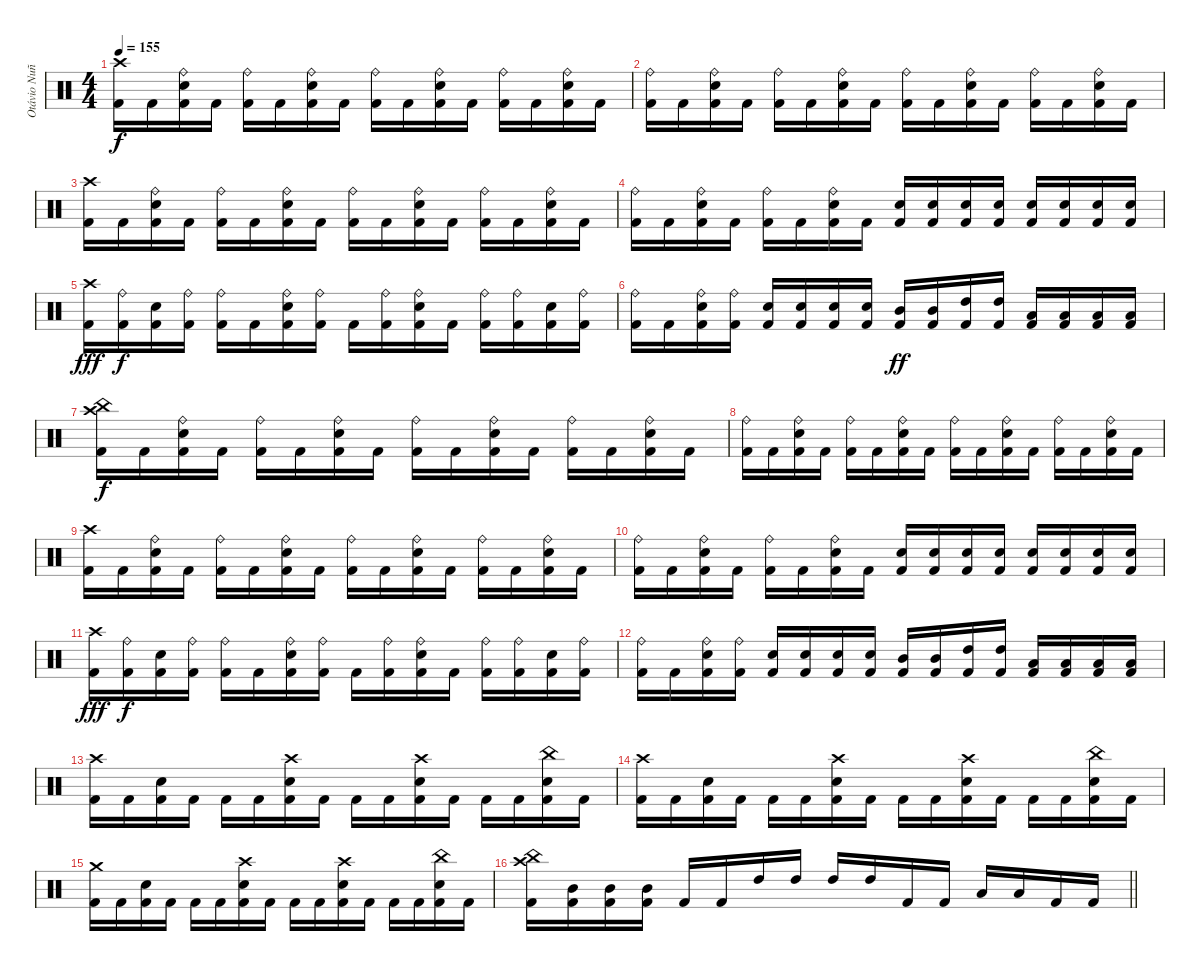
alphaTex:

\track ("Otávio Nuñez" "Otávio Nuñ") {instrument percussion}
\staff {score}
\articulation defaults
\ts (4 4)
\tempo 155
\clef neutral
\ks c
("Crash high (hit)" "Kick (hit) 2").16{dy f} "Kick (hit) 2".16 ("Ride (bell)" "Electric Snare (hit)" "Kick (hit) 2").16 "Kick (hit) 2".16 ("Ride (bell)" "Kick (hit) 2").16 "Kick (hit) 2".16 ("Ride (bell)" "Electric Snare (hit)" "Kick (hit) 2").16 "Kick (hit) 2".16 ("Ride (bell)" "Kick (hit) 2").16 "Kick (hit) 2".16 ("Ride (bell)" "Electric Snare (hit)" "Kick (hit) 2").16 "Kick (hit) 2".16 ("Ride (bell)" "Kick (hit) 2").16 "Kick (hit) 2".16 ("Ride (bell)" "Electric Snare (hit)" "Kick (hit) 2").16 "Kick (hit) 2".16 |
("Ride (bell)" "Kick (hit) 2").16 "Kick (hit) 2".16 ("Ride (bell)" "Electric Snare (hit)" "Kick (hit) 2").16 "Kick (hit) 2".16 ("Ride (bell)" "Kick (hit) 2").16 "Kick (hit) 2".16 ("Ride (bell)" "Electric Snare (hit)" "Kick (hit) 2").16 "Kick (hit) 2".16 ("Ride (bell)" "Kick (hit) 2").16 "Kick (hit) 2".16 ("Ride (bell)" "Electric Snare (hit)" "Kick (hit) 2").16 "Kick (hit) 2".16 ("Ride (bell)" "Kick (hit) 2").16 "Kick (hit) 2".16 ("Ride (bell)" "Electric Snare (hit)" "Kick (hit) 2").16 "Kick (hit) 2".16 |
("Crash high (hit)" "Kick (hit) 2").16 "Kick (hit) 2".16 ("Ride (bell)" "Electric Snare (hit)" "Kick (hit) 2").16 "Kick (hit) 2".16 ("Ride (bell)" "Kick (hit) 2").16 "Kick (hit) 2".16 ("Ride (bell)" "Electric Snare (hit)" "Kick (hit) 2").16 "Kick (hit) 2".16 ("Ride (bell)" "Kick (hit) 2").16 "Kick (hit) 2".16 ("Ride (bell)" "Electric Snare (hit)" "Kick (hit) 2").16 "Kick (hit) 2".16 ("Ride (bell)" "Kick (hit) 2").16 "Kick (hit) 2".16 ("Ride (bell)" "Electric Snare (hit)" "Kick (hit) 2").16 "Kick (hit) 2".16 |
("Ride (bell)" "Kick (hit) 2").16 "Kick (hit) 2".16 ("Ride (bell)" "Electric Snare (hit)" "Kick (hit) 2").16 "Kick (hit) 2".16 ("Ride (bell)" "Kick (hit) 2").16 "Kick (hit) 2".16 ("Ride (bell)" "Electric Snare (hit)" "Kick (hit) 2").16 "Kick (hit) 2".16 ("Electric Snare (hit)" "Kick (hit) 2").16 ("Electric Snare (hit)" "Kick (hit) 2").16 ("Electric Snare (hit)" "Kick (hit) 2").16 ("Electric Snare (hit)" "Kick (hit) 2").16 ("Electric Snare (hit)" "Kick (hit) 2").16 ("Electric Snare (hit)" "Kick (hit) 2").16 ("Electric Snare (hit)" "Kick (hit) 2").16 ("Electric Snare (hit)" "Kick (hit) 2").16 |
("Crash high (hit)" "Kick (hit) 2").16{dy fff} ("Ride (bell)" "Kick (hit) 2").16{dy f} ("Electric Snare (hit)" "Kick (hit) 2").16 ("Ride (bell)" "Kick (hit) 2").16 ("Ride (bell)" "Kick (hit) 2").16 "Kick (hit) 2".16 ("Ride (bell)" "Electric Snare (hit)" "Kick (hit) 2").16 ("Ride (bell)" "Kick (hit) 2").16 "Kick (hit) 2".16 ("Ride (bell)" "Kick (hit) 2").16 ("Ride (bell)" "Electric Snare (hit)" "Kick (hit) 2").16 "Kick (hit) 2".16 ("Ride (bell)" "Kick (hit) 2").16 ("Ride (bell)" "Kick (hit) 2").16 ("Electric Snare (hit)" "Kick (hit) 2").16 ("Ride (bell)" "Kick (hit) 2").16 |
("Ride (bell)" "Kick (hit) 2").16 "Kick (hit) 2".16 ("Ride (bell)" "Electric Snare (hit)" "Kick (hit) 2").16 ("Ride (bell)" "Kick (hit) 2").16 ("Electric Snare (hit)" "Kick (hit) 2").16 ("Electric Snare (hit)" "Kick (hit) 2").16 ("Electric Snare (hit)" "Kick (hit) 2").16 ("Electric Snare (hit)" "Kick (hit) 2").16 ("Mid Tom (hit)" "Kick (hit) 2").16{dy ff} ("Mid Tom (hit)" "Kick (hit) 2").16 ("High Tom (hit)" "Kick (hit) 2").16 ("High Tom (hit)" "Kick (hit) 2").16 ("Low Tom (hit)" "Kick (hit) 2").16 ("Low Tom (hit)" "Kick (hit) 2").16 ("Low Floor Tom (hit)" "Kick (hit) 2").16 ("Low Floor Tom (hit)" "Kick (hit) 2").16 |
("Crash high (hit)" "China (hit)" "Kick (hit) 2").16{dy f} "Kick (hit) 2".16 ("Ride (bell)" "Electric Snare (hit)" "Kick (hit) 2").16 "Kick (hit) 2".16 ("Ride (bell)" "Kick (hit) 2").16 "Kick (hit) 2".16 ("Ride (bell)" "Electric Snare (hit)" "Kick (hit) 2").16 "Kick (hit) 2".16 ("Ride (bell)" "Kick (hit) 2").16 "Kick (hit) 2".16 ("Ride (bell)" "Electric Snare (hit)" "Kick (hit) 2").16 "Kick (hit) 2".16 ("Ride (bell)" "Kick (hit) 2").16 "Kick (hit) 2".16 ("Ride (bell)" "Electric Snare (hit)" "Kick (hit) 2").16 "Kick (hit) 2".16 |
("Ride (bell)" "Kick (hit) 2").16 "Kick (hit) 2".16 ("Ride (bell)" "Electric Snare (hit)" "Kick (hit) 2").16 "Kick (hit) 2".16 ("Ride (bell)" "Kick (hit) 2").16 "Kick (hit) 2".16 ("Ride (bell)" "Electric Snare (hit)" "Kick (hit) 2").16 "Kick (hit) 2".16 ("Ride (bell)" "Kick (hit) 2").16 "Kick (hit) 2".16 ("Ride (bell)" "Electric Snare (hit)" "Kick (hit) 2").16 "Kick (hit) 2".16 ("Ride (bell)" "Kick (hit) 2").16 "Kick (hit) 2".16 ("Ride (bell)" "Electric Snare (hit)" "Kick (hit) 2").16 "Kick (hit) 2".16 |
("Crash high (hit)" "Kick (hit) 2").16 "Kick (hit) 2".16 ("Ride (bell)" "Electric Snare (hit)" "Kick (hit) 2").16 "Kick (hit) 2".16 ("Ride (bell)" "Kick (hit) 2").16 "Kick (hit) 2".16 ("Ride (bell)" "Electric Snare (hit)" "Kick (hit) 2").16 "Kick (hit) 2".16 ("Ride (bell)" "Kick (hit) 2").16 "Kick (hit) 2".16 ("Ride (bell)" "Electric Snare (hit)" "Kick (hit) 2").16 "Kick (hit) 2".16 ("Ride (bell)" "Kick (hit) 2").16 "Kick (hit) 2".16 ("Ride (bell)" "Electric Snare (hit)" "Kick (hit) 2").16 "Kick (hit) 2".16 |
("Ride (bell)" "Kick (hit) 2").16 "Kick (hit) 2".16 ("Ride (bell)" "Electric Snare (hit)" "Kick (hit) 2").16 "Kick (hit) 2".16 ("Ride (bell)" "Kick (hit) 2").16 "Kick (hit) 2".16 ("Ride (bell)" "Electric Snare (hit)" "Kick (hit) 2").16 "Kick (hit) 2".16 ("Electric Snare (hit)" "Kick (hit) 2").16 ("Electric Snare (hit)" "Kick (hit) 2").16 ("Electric Snare (hit)" "Kick (hit) 2").16 ("Electric Snare (hit)" "Kick (hit) 2").16 ("Electric Snare (hit)" "Kick (hit) 2").16 ("Electric Snare (hit)" "Kick (hit) 2").16 ("Electric Snare (hit)" "Kick (hit) 2").16 ("Electric Snare (hit)" "Kick (hit) 2").16 |
("Crash high (hit)" "Kick (hit) 2").16{dy fff} ("Ride (bell)" "Kick (hit) 2").16{dy f} ("Electric Snare (hit)" "Kick (hit) 2").16 ("Ride (bell)" "Kick (hit) 2").16 ("Ride (bell)" "Kick (hit) 2").16 "Kick (hit) 2".16 ("Ride (bell)" "Electric Snare (hit)" "Kick (hit) 2").16 ("Ride (bell)" "Kick (hit) 2").16 "Kick (hit) 2".16 ("Ride (bell)" "Kick (hit) 2").16 ("Ride (bell)" "Electric Snare (hit)" "Kick (hit) 2").16 "Kick (hit) 2".16 ("Ride (bell)" "Kick (hit) 2").16 ("Ride (bell)" "Kick (hit) 2").16 ("Electric Snare (hit)" "Kick (hit) 2").16 ("Ride (bell)" "Kick (hit) 2").16 |
("Ride (bell)" "Kick (hit) 2").16 "Kick (hit) 2".16 ("Ride (bell)" "Electric Snare (hit)" "Kick (hit) 2").16 ("Ride (bell)" "Kick (hit) 2").16 ("Electric Snare (hit)" "Kick (hit) 2").16 ("Electric Snare (hit)" "Kick (hit) 2").16 ("Electric Snare (hit)" "Kick (hit) 2").16 ("Electric Snare (hit)" "Kick (hit) 2").16 ("Mid Tom (hit)" "Kick (hit) 2").16 ("Mid Tom (hit)" "Kick (hit) 2").16 ("High Tom (hit)" "Kick (hit) 2").16 ("High Tom (hit)" "Kick (hit) 2").16 ("Low Tom (hit)" "Kick (hit) 2").16 ("Low Tom (hit)" "Kick (hit) 2").16 ("Low Floor Tom (hit)" "Kick (hit) 2").16 ("Low Floor Tom (hit)" "Kick (hit) 2").16 |
("Crash high (hit)" "Kick (hit) 2").16 "Kick (hit) 2".16 ("Electric Snare (hit)" "Kick (hit) 2").16 "Kick (hit) 2".16 "Kick (hit) 2".16 "Kick (hit) 2".16 ("Crash high (hit)" "Electric Snare (hit)" "Kick (hit) 2").16 "Kick (hit) 2".16 "Kick (hit) 2".16 "Kick (hit) 2".16 ("Crash high (hit)" "Electric Snare (hit)" "Kick (hit) 2").16 "Kick (hit) 2".16 "Kick (hit) 2".16 "Kick (hit) 2".16 ("China (hit)" "Electric Snare (hit)" "Kick (hit) 2").16 "Kick (hit) 2".16 |
("Crash high (hit)" "Kick (hit) 2").16 "Kick (hit) 2".16 ("Electric Snare (hit)" "Kick (hit) 2").16 "Kick (hit) 2".16 "Kick (hit) 2".16 "Kick (hit) 2".16 ("Crash high (hit)" "Electric Snare (hit)" "Kick (hit) 2").16 "Kick (hit) 2".16 "Kick (hit) 2".16 "Kick (hit) 2".16 ("Crash high (hit)" "Electric Snare (hit)" "Kick (hit) 2").16 "Kick (hit) 2".16 "Kick (hit) 2".16 "Kick (hit) 2".16 ("China (hit)" "Electric Snare (hit)" "Kick (hit) 2").16 "Kick (hit) 2".16 |
("Crash medium (hit)" "Kick (hit) 2").16 "Kick (hit) 2".16 ("Electric Snare (hit)" "Kick (hit) 2").16 "Kick (hit) 2".16 "Kick (hit) 2".16 "Kick (hit) 2".16 ("Crash high (hit)" "Electric Snare (hit)" "Kick (hit) 2").16 "Kick (hit) 2".16 "Kick (hit) 2".16 "Kick (hit) 2".16 ("Crash high (hit)" "Electric Snare (hit)" "Kick (hit) 2").16 "Kick (hit) 2".16 "Kick (hit) 2".16 "Kick (hit) 2".16 ("China (hit)" "Electric Snare (hit)" "Kick (hit) 2").16 "Kick (hit) 2".16 |
\barLineRight lightlight
("Crash high (hit)" "China (hit)" "Kick (hit) 2").16 ("Mid Tom (hit)" "Kick (hit) 2").16 ("Mid Tom (hit)" "Kick (hit) 2").16 ("Mid Tom (hit)" "Kick (hit) 2").16 "Kick (hit) 2".16 "Kick (hit) 2".16 "High Tom (hit)".16 "High Tom (hit)".16 "High Tom (hit)".16 "High Tom (hit)".16 "Kick (hit) 2".16 "Kick (hit) 2".16 "Low Floor Tom (hit)".16 "Low Floor Tom (hit)".16 "Kick (hit) 2".16 "Kick (hit) 2".16
